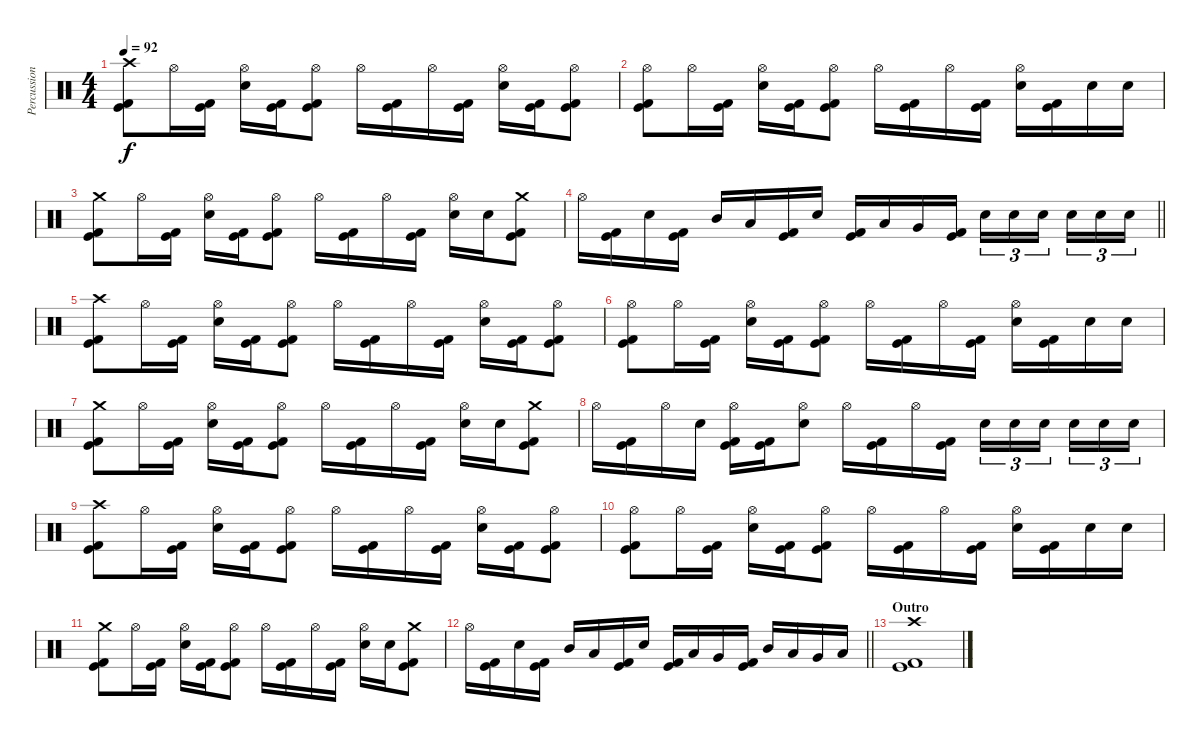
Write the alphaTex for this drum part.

\track ("Percussion" "Percussion") {instrument percussion}
\staff {score}
\articulation defaults
\ts (4 4)
\tempo 92
\clef neutral
\ks c
("Crash high (hit)" "Kick (hit)" "Kick (hit) 2").8{dy f} "Hi-Hat (open)".16 ("Kick (hit)" "Kick (hit) 2").16 ("Hi-Hat (open)" "Electric Snare (hit)").16 ("Kick (hit)" "Kick (hit) 2").16 ("Hi-Hat (open)" "Kick (hit)" "Kick (hit) 2").8 "Hi-Hat (open)".16 ("Kick (hit)" "Kick (hit) 2").16 "Hi-Hat (open)".16 ("Kick (hit)" "Kick (hit) 2").16 ("Hi-Hat (open)" "Electric Snare (hit)").16 ("Kick (hit)" "Kick (hit) 2").16 ("Hi-Hat (open)" "Kick (hit)" "Kick (hit) 2").8 |
("Hi-Hat (open)" "Kick (hit)" "Kick (hit) 2").8 "Hi-Hat (open)".16 ("Kick (hit)" "Kick (hit) 2").16 ("Hi-Hat (open)" "Electric Snare (hit)").16 ("Kick (hit)" "Kick (hit) 2").16 ("Hi-Hat (open)" "Kick (hit)" "Kick (hit) 2").8 "Hi-Hat (open)".16 ("Kick (hit)" "Kick (hit) 2").16 "Hi-Hat (open)".16 ("Kick (hit)" "Kick (hit) 2").16 ("Hi-Hat (open)" "Electric Snare (hit)").16 ("Kick (hit)" "Kick (hit) 2").16 "Electric Snare (hit)".16 "Electric Snare (hit)".16 |
("Crash medium (hit)" "Kick (hit)" "Kick (hit) 2").8 "Hi-Hat (open)".16 ("Kick (hit)" "Kick (hit) 2").16 ("Hi-Hat (open)" "Electric Snare (hit)").16 ("Kick (hit)" "Kick (hit) 2").16 ("Hi-Hat (open)" "Kick (hit)" "Kick (hit) 2").8 "Hi-Hat (open)".16 ("Kick (hit)" "Kick (hit) 2").16 "Hi-Hat (open)".16 ("Kick (hit)" "Kick (hit) 2").16 ("Hi-Hat (open)" "Electric Snare (hit)").16 "Electric Snare (hit)".16 ("Crash medium (hit)" "Kick (hit)" "Kick (hit) 2").8 |
\barLineRight lightlight "Hi-Hat (open)".16
("Kick (hit)" "Kick (hit) 2").16 "Electric Snare (hit)".16 ("Kick (hit)" "Kick (hit) 2").16 "Mid Tom (hit)".16 "Low Tom (hit)".16 ("Kick (hit)" "Kick (hit) 2").16 "Electric Snare (hit)".16 ("Kick (hit)" "Kick (hit) 2").16 "Low Tom (hit)".16 "Very Low Tom (hit)".16 ("Kick (hit)" "Kick (hit) 2").16 "Electric Snare (hit)".16{tu (3 2)} "Electric Snare (hit)".16{tu (3 2)} "Electric Snare (hit)".16{tu (3 2) beam splitsecondary} "Electric Snare (hit)".16{tu (3 2)} "Electric Snare (hit)".16{tu (3 2)} "Electric Snare (hit)".16{tu (3 2)} |
\section ("" "")
("Crash high (hit)" "Kick (hit)" "Kick (hit) 2").8 "Hi-Hat (open)".16 ("Kick (hit)" "Kick (hit) 2").16 ("Hi-Hat (open)" "Electric Snare (hit)").16 ("Kick (hit)" "Kick (hit) 2").16 ("Hi-Hat (open)" "Kick (hit)" "Kick (hit) 2").8 "Hi-Hat (open)".16 ("Kick (hit)" "Kick (hit) 2").16 "Hi-Hat (open)".16 ("Kick (hit)" "Kick (hit) 2").16 ("Hi-Hat (open)" "Electric Snare (hit)").16 ("Kick (hit)" "Kick (hit) 2").16 ("Hi-Hat (open)" "Kick (hit)" "Kick (hit) 2").8 |
("Hi-Hat (open)" "Kick (hit)" "Kick (hit) 2").8 "Hi-Hat (open)".16 ("Kick (hit)" "Kick (hit) 2").16 ("Hi-Hat (open)" "Electric Snare (hit)").16 ("Kick (hit)" "Kick (hit) 2").16 ("Hi-Hat (open)" "Kick (hit)" "Kick (hit) 2").8 "Hi-Hat (open)".16 ("Kick (hit)" "Kick (hit) 2").16 "Hi-Hat (open)".16 ("Kick (hit)" "Kick (hit) 2").16 ("Hi-Hat (open)" "Electric Snare (hit)").16 ("Kick (hit)" "Kick (hit) 2").16 "Electric Snare (hit)".16 "Electric Snare (hit)".16 |
("Crash medium (hit)" "Kick (hit)" "Kick (hit) 2").8 "Hi-Hat (open)".16 ("Kick (hit)" "Kick (hit) 2").16 ("Hi-Hat (open)" "Electric Snare (hit)").16 ("Kick (hit)" "Kick (hit) 2").16 ("Hi-Hat (open)" "Kick (hit)" "Kick (hit) 2").8 "Hi-Hat (open)".16 ("Kick (hit)" "Kick (hit) 2").16 "Hi-Hat (open)".16 ("Kick (hit)" "Kick (hit) 2").16 ("Hi-Hat (open)" "Electric Snare (hit)").16 "Electric Snare (hit)".16 ("Crash medium (hit)" "Kick (hit)" "Kick (hit) 2").8 |
"Hi-Hat (open)".16 ("Kick (hit)" "Kick (hit) 2").16 "Hi-Hat (open)".16 "Electric Snare (hit)".16 ("Hi-Hat (open)" "Kick (hit)" "Kick (hit) 2").16 ("Kick (hit)" "Kick (hit) 2").16 ("Hi-Hat (open)" "Electric Snare (hit)").8 "Hi-Hat (open)".16 ("Kick (hit)" "Kick (hit) 2").16 "Hi-Hat (open)".16 ("Kick (hit)" "Kick (hit) 2").16 "Electric Snare (hit)".16{tu (3 2)} "Electric Snare (hit)".16{tu (3 2)} "Electric Snare (hit)".16{tu (3 2) beam splitsecondary} "Electric Snare (hit)".16{tu (3 2)} "Electric Snare (hit)".16{tu (3 2)} "Electric Snare (hit)".16{tu (3 2)} |
("Crash high (hit)" "Kick (hit)" "Kick (hit) 2").8 "Hi-Hat (open)".16 ("Kick (hit)" "Kick (hit) 2").16 ("Hi-Hat (open)" "Electric Snare (hit)").16 ("Kick (hit)" "Kick (hit) 2").16 ("Hi-Hat (open)" "Kick (hit)" "Kick (hit) 2").8 "Hi-Hat (open)".16 ("Kick (hit)" "Kick (hit) 2").16 "Hi-Hat (open)".16 ("Kick (hit)" "Kick (hit) 2").16 ("Hi-Hat (open)" "Electric Snare (hit)").16 ("Kick (hit)" "Kick (hit) 2").16 ("Hi-Hat (open)" "Kick (hit)" "Kick (hit) 2").8 |
("Hi-Hat (open)" "Kick (hit)" "Kick (hit) 2").8 "Hi-Hat (open)".16 ("Kick (hit)" "Kick (hit) 2").16 ("Hi-Hat (open)" "Electric Snare (hit)").16 ("Kick (hit)" "Kick (hit) 2").16 ("Hi-Hat (open)" "Kick (hit)" "Kick (hit) 2").8 "Hi-Hat (open)".16 ("Kick (hit)" "Kick (hit) 2").16 "Hi-Hat (open)".16 ("Kick (hit)" "Kick (hit) 2").16 ("Hi-Hat (open)" "Electric Snare (hit)").16 ("Kick (hit)" "Kick (hit) 2").16 "Electric Snare (hit)".16 "Electric Snare (hit)".16 |
("Crash medium (hit)" "Kick (hit)" "Kick (hit) 2").8 "Hi-Hat (open)".16 ("Kick (hit)" "Kick (hit) 2").16 ("Hi-Hat (open)" "Electric Snare (hit)").16 ("Kick (hit)" "Kick (hit) 2").16 ("Hi-Hat (open)" "Kick (hit)" "Kick (hit) 2").8 "Hi-Hat (open)".16 ("Kick (hit)" "Kick (hit) 2").16 "Hi-Hat (open)".16 ("Kick (hit)" "Kick (hit) 2").16 ("Hi-Hat (open)" "Electric Snare (hit)").16 "Electric Snare (hit)".16 ("Crash medium (hit)" "Kick (hit)" "Kick (hit) 2").8 |
\barLineRight lightlight "Hi-Hat (open)".16
("Kick (hit)" "Kick (hit) 2").16 "Electric Snare (hit)".16 ("Kick (hit)" "Kick (hit) 2").16 "Mid Tom (hit)".16 "Low Tom (hit)".16 ("Kick (hit)" "Kick (hit) 2").16 "Electric Snare (hit)".16 ("Kick (hit)" "Kick (hit) 2").16 "Low Tom (hit)".16 "Very Low Tom (hit)".16 ("Kick (hit)" "Kick (hit) 2").16 "Mid Tom (hit)".16 "Low Tom (hit)".16 "Very Low Tom (hit)".16 "Low Floor Tom (hit)".16 |
\section ("" "Outro")
("Crash high (hit)" "Kick (hit)" "Kick (hit) 2").1
